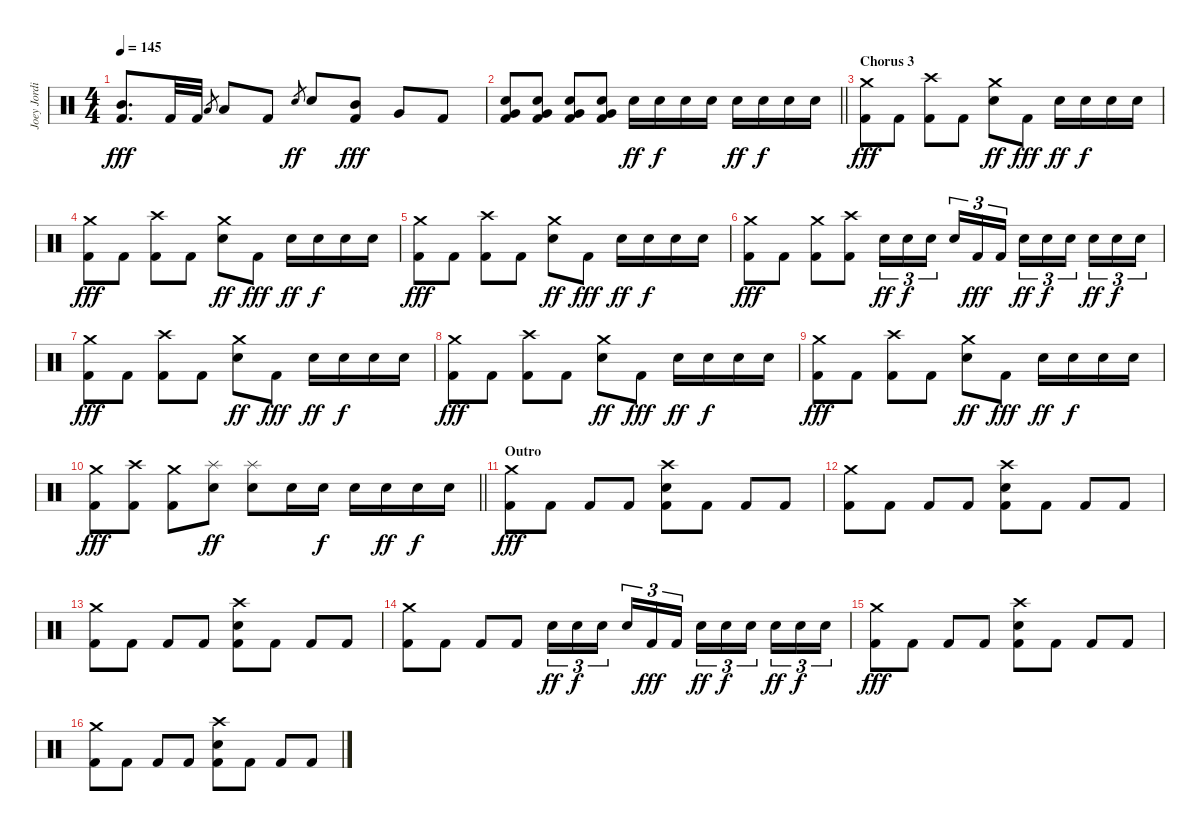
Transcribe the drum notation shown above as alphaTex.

\track ("Joey Jordison" "Joey Jordi") {instrument percussion}
\staff {score}
\articulation defaults
\ts (4 4)
\tempo 145
\clef neutral
\ks c
("Mid Tom (hit)" "Kick (hit) 2").8{d dy fff} "Kick (hit) 2".32 "Kick (hit) 2".32 "Low Tom (hit)".8{gr} "Low Tom (hit)".8 "Kick (hit) 2".8 "Electric Snare (hit)".8{gr dy ff} "Electric Snare (hit)".8 ("Mid Tom (hit)" "Kick (hit) 2").8{dy fff} "Very Low Tom (hit)".8 "Kick (hit) 2".8 |
\barLineRight lightlight
("Electric Snare (hit)" "Very Low Tom (hit)" "Kick (hit) 2").8 ("Electric Snare (hit)" "Very Low Tom (hit)" "Kick (hit) 2").8 ("Electric Snare (hit)" "Very Low Tom (hit)" "Kick (hit) 2").8 ("Electric Snare (hit)" "Very Low Tom (hit)" "Kick (hit) 2").8 "Electric Snare (hit)".16{dy ff} "Electric Snare (hit)".16{dy f} "Electric Snare (hit)".16 "Electric Snare (hit)".16 "Electric Snare (hit)".16{dy ff} "Electric Snare (hit)".16{dy f} "Electric Snare (hit)".16 "Electric Snare (hit)".16 |
\section ("" "Chorus 3")
("Crash medium (hit)" "Kick (hit) 2").8{dy fff} "Kick (hit) 2".8 ("Crash high (hit)" "Kick (hit) 2").8 "Kick (hit) 2".8 ("Crash medium (hit)" "Electric Snare (hit)").8{dy ff} "Kick (hit) 2".8{dy fff} "Electric Snare (hit)".16{dy ff} "Electric Snare (hit)".16{dy f} "Electric Snare (hit)".16 "Electric Snare (hit)".16 |
("Crash medium (hit)" "Kick (hit) 2").8{dy fff} "Kick (hit) 2".8 ("Crash high (hit)" "Kick (hit) 2").8 "Kick (hit) 2".8 ("Crash medium (hit)" "Electric Snare (hit)").8{dy ff} "Kick (hit) 2".8{dy fff} "Electric Snare (hit)".16{dy ff} "Electric Snare (hit)".16{dy f} "Electric Snare (hit)".16 "Electric Snare (hit)".16 |
("Crash medium (hit)" "Kick (hit) 2").8{dy fff} "Kick (hit) 2".8 ("Crash high (hit)" "Kick (hit) 2").8 "Kick (hit) 2".8 ("Crash medium (hit)" "Electric Snare (hit)").8{dy ff} "Kick (hit) 2".8{dy fff} "Electric Snare (hit)".16{dy ff} "Electric Snare (hit)".16{dy f} "Electric Snare (hit)".16 "Electric Snare (hit)".16 |
("Crash medium (hit)" "Kick (hit) 2").8{dy fff} "Kick (hit) 2".8 ("Crash medium (hit)" "Kick (hit) 2").8 ("Crash high (hit)" "Kick (hit) 2").8 "Electric Snare (hit)".16{tu (3 2) dy ff} "Electric Snare (hit)".16{tu (3 2) dy f} "Electric Snare (hit)".16{tu (3 2) beam splitsecondary} "Electric Snare (hit)".16{tu (3 2)} "Kick (hit) 2".16{tu (3 2) dy fff} "Kick (hit) 2".16{tu (3 2)} "Electric Snare (hit)".16{tu (3 2) dy ff} "Electric Snare (hit)".16{tu (3 2) dy f} "Electric Snare (hit)".16{tu (3 2) beam splitsecondary} "Electric Snare (hit)".16{tu (3 2) dy ff} "Electric Snare (hit)".16{tu (3 2) dy f} "Electric Snare (hit)".16{tu (3 2)} |
("Crash medium (hit)" "Kick (hit) 2").8{dy fff} "Kick (hit) 2".8 ("Crash high (hit)" "Kick (hit) 2").8 "Kick (hit) 2".8 ("Crash medium (hit)" "Electric Snare (hit)").8{dy ff} "Kick (hit) 2".8{dy fff} "Electric Snare (hit)".16{dy ff} "Electric Snare (hit)".16{dy f} "Electric Snare (hit)".16 "Electric Snare (hit)".16 |
("Crash medium (hit)" "Kick (hit) 2").8{dy fff} "Kick (hit) 2".8 ("Crash high (hit)" "Kick (hit) 2").8 "Kick (hit) 2".8 ("Crash medium (hit)" "Electric Snare (hit)").8{dy ff} "Kick (hit) 2".8{dy fff} "Electric Snare (hit)".16{dy ff} "Electric Snare (hit)".16{dy f} "Electric Snare (hit)".16 "Electric Snare (hit)".16 |
("Crash medium (hit)" "Kick (hit) 2").8{dy fff} "Kick (hit) 2".8 ("Crash high (hit)" "Kick (hit) 2").8 "Kick (hit) 2".8 ("Crash medium (hit)" "Electric Snare (hit)").8{dy ff} "Kick (hit) 2".8{dy fff} "Electric Snare (hit)".16{dy ff} "Electric Snare (hit)".16{dy f} "Electric Snare (hit)".16 "Electric Snare (hit)".16 |
\barLineRight lightlight
("Crash medium (hit)" "Kick (hit) 2").8{dy fff} ("Crash high (hit)" "Kick (hit) 2").8 ("Crash medium (hit)" "Kick (hit) 2").8 ("Splash (hit)" "Electric Snare (hit)").8{dy ff} ("Splash (hit)" "Electric Snare (hit)").8 "Electric Snare (hit)".16 "Electric Snare (hit)".16{dy f} "Electric Snare (hit)".16 "Electric Snare (hit)".16{dy ff} "Electric Snare (hit)".16{dy f} "Electric Snare (hit)".16 |
\section ("" "Outro")
("Crash medium (hit)" "Kick (hit) 2").8{dy fff} "Kick (hit) 2".8 "Kick (hit) 2".8 "Kick (hit) 2".8 ("Crash high (hit)" "Electric Snare (hit)" "Kick (hit) 2").8 "Kick (hit) 2".8 "Kick (hit) 2".8 "Kick (hit) 2".8 |
("Crash medium (hit)" "Kick (hit) 2").8 "Kick (hit) 2".8 "Kick (hit) 2".8 "Kick (hit) 2".8 ("Crash high (hit)" "Electric Snare (hit)" "Kick (hit) 2").8 "Kick (hit) 2".8 "Kick (hit) 2".8 "Kick (hit) 2".8 |
("Crash medium (hit)" "Kick (hit) 2").8 "Kick (hit) 2".8 "Kick (hit) 2".8 "Kick (hit) 2".8 ("Crash high (hit)" "Electric Snare (hit)" "Kick (hit) 2").8 "Kick (hit) 2".8 "Kick (hit) 2".8 "Kick (hit) 2".8 |
("Crash medium (hit)" "Kick (hit) 2").8 "Kick (hit) 2".8 "Kick (hit) 2".8 "Kick (hit) 2".8 "Electric Snare (hit)".16{tu (3 2) dy ff} "Electric Snare (hit)".16{tu (3 2) dy f} "Electric Snare (hit)".16{tu (3 2) beam splitsecondary} "Electric Snare (hit)".16{tu (3 2)} "Kick (hit) 2".16{tu (3 2) dy fff} "Kick (hit) 2".16{tu (3 2)} "Electric Snare (hit)".16{tu (3 2) dy ff} "Electric Snare (hit)".16{tu (3 2) dy f} "Electric Snare (hit)".16{tu (3 2) beam splitsecondary} "Electric Snare (hit)".16{tu (3 2) dy ff} "Electric Snare (hit)".16{tu (3 2) dy f} "Electric Snare (hit)".16{tu (3 2)} |
("Crash medium (hit)" "Kick (hit) 2").8{dy fff} "Kick (hit) 2".8 "Kick (hit) 2".8 "Kick (hit) 2".8 ("Crash high (hit)" "Electric Snare (hit)" "Kick (hit) 2").8 "Kick (hit) 2".8 "Kick (hit) 2".8 "Kick (hit) 2".8 |
("Crash medium (hit)" "Kick (hit) 2").8 "Kick (hit) 2".8 "Kick (hit) 2".8 "Kick (hit) 2".8 ("Crash high (hit)" "Electric Snare (hit)" "Kick (hit) 2").8 "Kick (hit) 2".8 "Kick (hit) 2".8 "Kick (hit) 2".8
